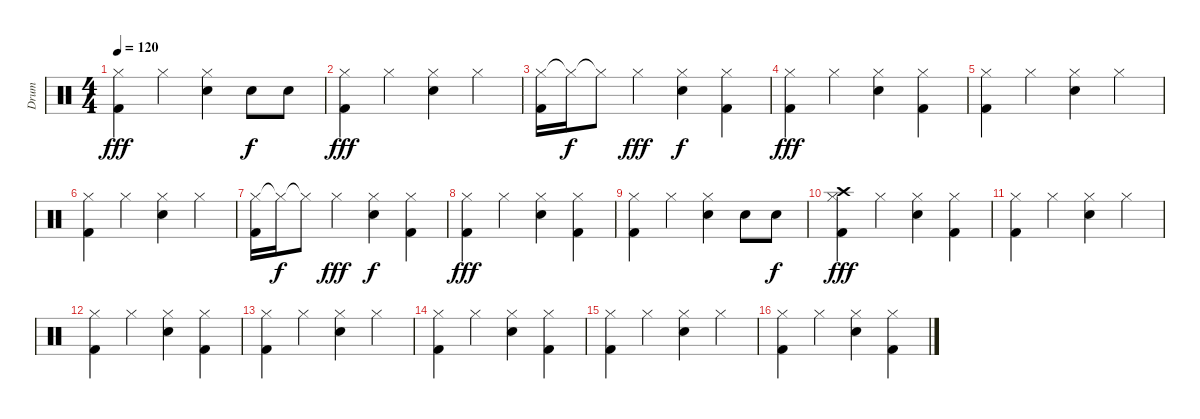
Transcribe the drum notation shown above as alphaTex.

\track ("Drum" "Drum") {instrument percussion}
\staff {score}
\articulation defaults
\ts (4 4)
\tempo 120
\clef neutral
\ks c
("Hi-Hat (closed)" "Kick (hit) 2").4{dy fff} "Hi-Hat (closed)".4 ("Hi-Hat (closed)" "Electric Snare (hit)").4 "Electric Snare (hit)".8{dy f} "Electric Snare (hit)".8 |
("Hi-Hat (closed)" "Kick (hit) 2").4{dy fff} "Hi-Hat (closed)".4 ("Hi-Hat (closed)" "Electric Snare (hit)").4 "Hi-Hat (closed)".4 |
("Hi-Hat (closed)" "Kick (hit) 2").16 "Hi-Hat (closed)"{t}.16{dy f} "Hi-Hat (closed)"{t}.8 "Hi-Hat (closed)".4{dy fff} ("Hi-Hat (closed)" "Electric Snare (hit)").4{dy f} ("Hi-Hat (closed)" "Kick (hit) 2").4 |
("Hi-Hat (closed)" "Kick (hit) 2").4{dy fff} "Hi-Hat (closed)".4 ("Hi-Hat (closed)" "Electric Snare (hit)").4 ("Hi-Hat (closed)" "Kick (hit) 2").4 |
("Hi-Hat (closed)" "Kick (hit) 2").4 "Hi-Hat (closed)".4 ("Hi-Hat (closed)" "Electric Snare (hit)").4 "Hi-Hat (closed)".4 |
("Hi-Hat (closed)" "Kick (hit) 2").4 "Hi-Hat (closed)".4 ("Hi-Hat (closed)" "Electric Snare (hit)").4 "Hi-Hat (closed)".4 |
("Hi-Hat (closed)" "Kick (hit) 2").16 "Hi-Hat (closed)"{t}.16{dy f} "Hi-Hat (closed)"{t}.8 "Hi-Hat (closed)".4{dy fff} ("Hi-Hat (closed)" "Electric Snare (hit)").4{dy f} ("Hi-Hat (closed)" "Kick (hit) 2").4 |
("Hi-Hat (closed)" "Kick (hit) 2").4{dy fff} "Hi-Hat (closed)".4 ("Hi-Hat (closed)" "Electric Snare (hit)").4 ("Hi-Hat (closed)" "Kick (hit) 2").4 |
("Hi-Hat (closed)" "Kick (hit) 2").4 "Hi-Hat (closed)".4 ("Hi-Hat (closed)" "Electric Snare (hit)").4 "Electric Snare (hit)".8 "Electric Snare (hit)".8{dy f} |
("Crash high (hit)" "Hi-Hat (closed)" "Kick (hit) 2").4{dy fff} "Hi-Hat (closed)".4 ("Hi-Hat (closed)" "Electric Snare (hit)").4 ("Hi-Hat (closed)" "Kick (hit) 2").4 |
("Hi-Hat (closed)" "Kick (hit) 2").4 "Hi-Hat (closed)".4 ("Hi-Hat (closed)" "Electric Snare (hit)").4 "Hi-Hat (closed)".4 |
("Hi-Hat (closed)" "Kick (hit) 2").4 "Hi-Hat (closed)".4 ("Hi-Hat (closed)" "Electric Snare (hit)").4 ("Hi-Hat (closed)" "Kick (hit) 2").4 |
("Hi-Hat (closed)" "Kick (hit) 2").4 "Hi-Hat (closed)".4 ("Hi-Hat (closed)" "Electric Snare (hit)").4 "Hi-Hat (closed)".4 |
("Hi-Hat (closed)" "Kick (hit) 2").4 "Hi-Hat (closed)".4 ("Hi-Hat (closed)" "Electric Snare (hit)").4 ("Hi-Hat (closed)" "Kick (hit) 2").4 |
("Hi-Hat (closed)" "Kick (hit) 2").4 "Hi-Hat (closed)".4 ("Hi-Hat (closed)" "Electric Snare (hit)").4 "Hi-Hat (closed)".4 |
("Hi-Hat (closed)" "Kick (hit) 2").4 "Hi-Hat (closed)".4 ("Hi-Hat (closed)" "Electric Snare (hit)").4 ("Hi-Hat (closed)" "Kick (hit) 2").4
